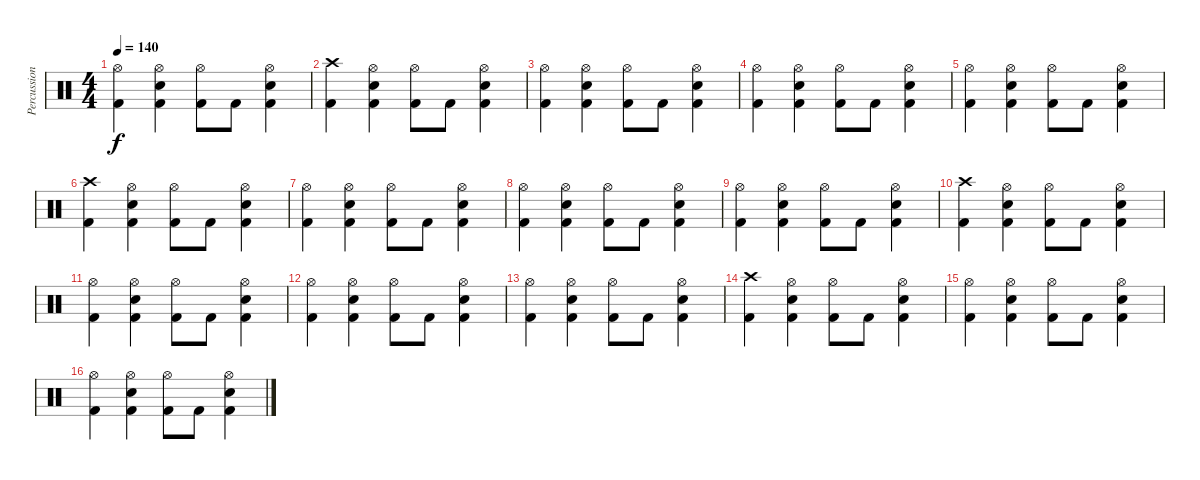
\track ("Percussions" "Percussion") {instrument percussion}
\staff {score}
\articulation defaults
\ts (4 4)
\tempo 140
\clef neutral
\ks c
("Hi-Hat (open)" "Kick (hit) 2").4{dy f} ("Hi-Hat (open)" "Electric Snare (hit)" "Kick (hit) 2").4 ("Hi-Hat (open)" "Kick (hit) 2").8 "Kick (hit) 2".8 ("Hi-Hat (open)" "Electric Snare (hit)" "Kick (hit) 2").4 |
("Crash high (hit)" "Kick (hit) 2").4 ("Hi-Hat (open)" "Electric Snare (hit)" "Kick (hit) 2").4 ("Hi-Hat (open)" "Kick (hit) 2").8 "Kick (hit) 2".8 ("Hi-Hat (open)" "Electric Snare (hit)" "Kick (hit) 2").4 |
("Hi-Hat (open)" "Kick (hit) 2").4 ("Hi-Hat (open)" "Electric Snare (hit)" "Kick (hit) 2").4 ("Hi-Hat (open)" "Kick (hit) 2").8 "Kick (hit) 2".8 ("Hi-Hat (open)" "Electric Snare (hit)" "Kick (hit) 2").4 |
("Hi-Hat (open)" "Kick (hit) 2").4 ("Hi-Hat (open)" "Electric Snare (hit)" "Kick (hit) 2").4 ("Hi-Hat (open)" "Kick (hit) 2").8 "Kick (hit) 2".8 ("Hi-Hat (open)" "Electric Snare (hit)" "Kick (hit) 2").4 |
("Hi-Hat (open)" "Kick (hit) 2").4 ("Hi-Hat (open)" "Electric Snare (hit)" "Kick (hit) 2").4 ("Hi-Hat (open)" "Kick (hit) 2").8 "Kick (hit) 2".8 ("Hi-Hat (open)" "Electric Snare (hit)" "Kick (hit) 2").4 |
("Crash high (hit)" "Kick (hit) 2").4 ("Hi-Hat (open)" "Electric Snare (hit)" "Kick (hit) 2").4 ("Hi-Hat (open)" "Kick (hit) 2").8 "Kick (hit) 2".8 ("Hi-Hat (open)" "Electric Snare (hit)" "Kick (hit) 2").4 |
("Hi-Hat (open)" "Kick (hit) 2").4 ("Hi-Hat (open)" "Electric Snare (hit)" "Kick (hit) 2").4 ("Hi-Hat (open)" "Kick (hit) 2").8 "Kick (hit) 2".8 ("Hi-Hat (open)" "Electric Snare (hit)" "Kick (hit) 2").4 |
("Hi-Hat (open)" "Kick (hit) 2").4 ("Hi-Hat (open)" "Electric Snare (hit)" "Kick (hit) 2").4 ("Hi-Hat (open)" "Kick (hit) 2").8 "Kick (hit) 2".8 ("Hi-Hat (open)" "Electric Snare (hit)" "Kick (hit) 2").4 |
("Hi-Hat (open)" "Kick (hit) 2").4 ("Hi-Hat (open)" "Electric Snare (hit)" "Kick (hit) 2").4 ("Hi-Hat (open)" "Kick (hit) 2").8 "Kick (hit) 2".8 ("Hi-Hat (open)" "Electric Snare (hit)" "Kick (hit) 2").4 |
("Crash high (hit)" "Kick (hit) 2").4 ("Hi-Hat (open)" "Electric Snare (hit)" "Kick (hit) 2").4 ("Hi-Hat (open)" "Kick (hit) 2").8 "Kick (hit) 2".8 ("Hi-Hat (open)" "Electric Snare (hit)" "Kick (hit) 2").4 |
("Hi-Hat (open)" "Kick (hit) 2").4 ("Hi-Hat (open)" "Electric Snare (hit)" "Kick (hit) 2").4 ("Hi-Hat (open)" "Kick (hit) 2").8 "Kick (hit) 2".8 ("Hi-Hat (open)" "Electric Snare (hit)" "Kick (hit) 2").4 |
("Hi-Hat (open)" "Kick (hit) 2").4 ("Hi-Hat (open)" "Electric Snare (hit)" "Kick (hit) 2").4 ("Hi-Hat (open)" "Kick (hit) 2").8 "Kick (hit) 2".8 ("Hi-Hat (open)" "Electric Snare (hit)" "Kick (hit) 2").4 |
("Hi-Hat (open)" "Kick (hit) 2").4 ("Hi-Hat (open)" "Electric Snare (hit)" "Kick (hit) 2").4 ("Hi-Hat (open)" "Kick (hit) 2").8 "Kick (hit) 2".8 ("Hi-Hat (open)" "Electric Snare (hit)" "Kick (hit) 2").4 |
("Crash high (hit)" "Kick (hit) 2").4 ("Hi-Hat (open)" "Electric Snare (hit)" "Kick (hit) 2").4 ("Hi-Hat (open)" "Kick (hit) 2").8 "Kick (hit) 2".8 ("Hi-Hat (open)" "Electric Snare (hit)" "Kick (hit) 2").4 |
("Hi-Hat (open)" "Kick (hit) 2").4 ("Hi-Hat (open)" "Electric Snare (hit)" "Kick (hit) 2").4 ("Hi-Hat (open)" "Kick (hit) 2").8 "Kick (hit) 2".8 ("Hi-Hat (open)" "Electric Snare (hit)" "Kick (hit) 2").4 |
("Hi-Hat (open)" "Kick (hit) 2").4 ("Hi-Hat (open)" "Electric Snare (hit)" "Kick (hit) 2").4 ("Hi-Hat (open)" "Kick (hit) 2").8 "Kick (hit) 2".8 ("Hi-Hat (open)" "Electric Snare (hit)" "Kick (hit) 2").4
